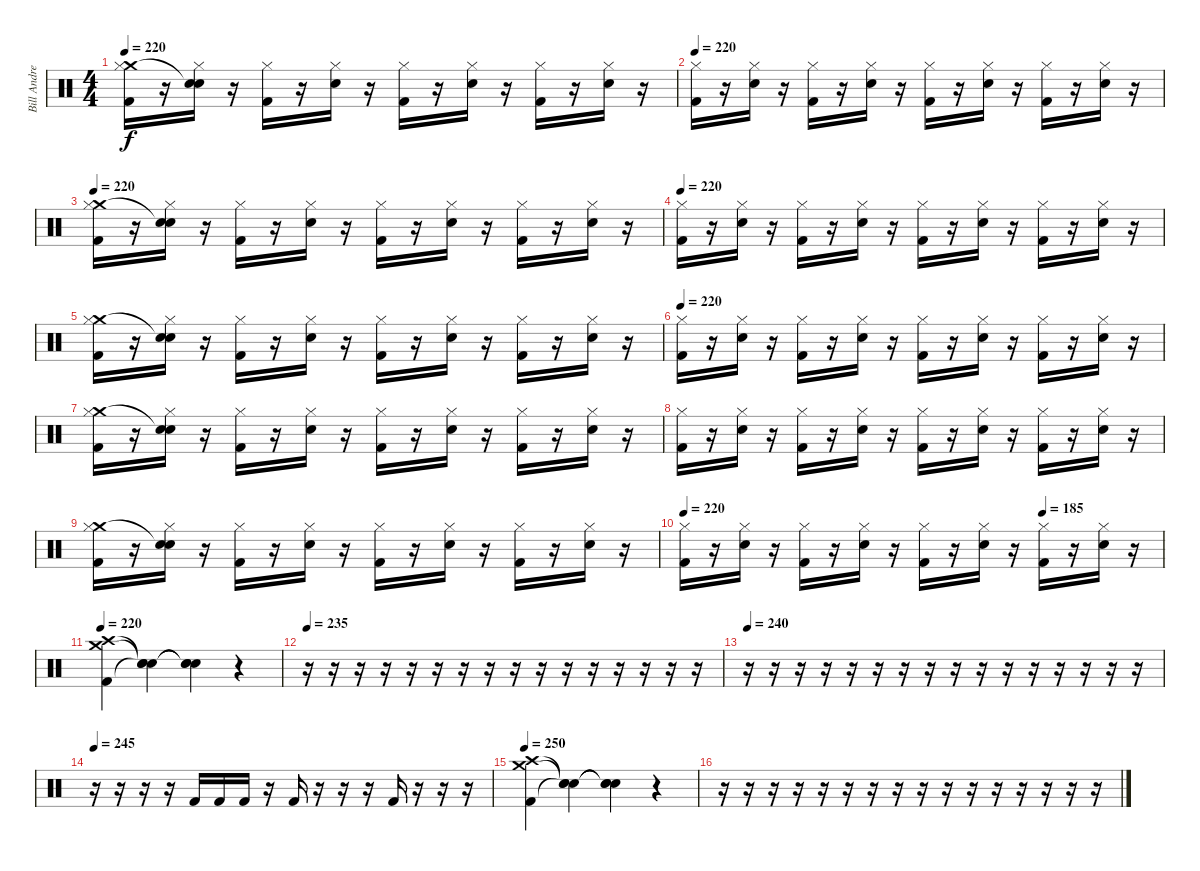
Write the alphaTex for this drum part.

\track ("Bill Andrews" "Bill Andre") {instrument percussion}
\staff {score}
\articulation defaults
\ts (4 4)
\tempo 220
\clef neutral
\ks c
("Crash medium (hit)" "Hi-Hat (closed)" "Kick (hit) 2").16{dy f} r.16 ("Snare (hit)"{t} "Hi-Hat (closed)" "Snare (hit) 2").16 r.16 ("Hi-Hat (closed)" "Kick (hit) 2").16 r.16 ("Hi-Hat (closed)" "Snare (hit) 2").16 r.16 ("Hi-Hat (closed)" "Kick (hit) 2").16 r.16 ("Hi-Hat (closed)" "Snare (hit) 2").16 r.16 ("Hi-Hat (closed)" "Kick (hit) 2").16 r.16 ("Hi-Hat (closed)" "Snare (hit) 2").16 r.16 |
\tempo 220
("Hi-Hat (closed)" "Kick (hit) 2").16 r.16 ("Hi-Hat (closed)" "Snare (hit) 2").16 r.16 ("Hi-Hat (closed)" "Kick (hit) 2").16 r.16 ("Hi-Hat (closed)" "Snare (hit) 2").16 r.16 ("Hi-Hat (closed)" "Kick (hit) 2").16 r.16 ("Hi-Hat (closed)" "Snare (hit) 2").16 r.16 ("Hi-Hat (closed)" "Kick (hit) 2").16 r.16 ("Hi-Hat (closed)" "Snare (hit) 2").16 r.16 |
\tempo 220
("Crash medium (hit)" "Hi-Hat (closed)" "Kick (hit) 2").16 r.16 ("Snare (hit)"{t} "Hi-Hat (closed)" "Snare (hit) 2").16 r.16 ("Hi-Hat (closed)" "Kick (hit) 2").16 r.16 ("Hi-Hat (closed)" "Snare (hit) 2").16 r.16 ("Hi-Hat (closed)" "Kick (hit) 2").16 r.16 ("Hi-Hat (closed)" "Snare (hit) 2").16 r.16 ("Hi-Hat (closed)" "Kick (hit) 2").16 r.16 ("Hi-Hat (closed)" "Snare (hit) 2").16 r.16 |
\tempo 220
("Hi-Hat (closed)" "Kick (hit) 2").16 r.16 ("Hi-Hat (closed)" "Snare (hit) 2").16 r.16 ("Hi-Hat (closed)" "Kick (hit) 2").16 r.16 ("Hi-Hat (closed)" "Snare (hit) 2").16 r.16 ("Hi-Hat (closed)" "Kick (hit) 2").16 r.16 ("Hi-Hat (closed)" "Snare (hit) 2").16 r.16 ("Hi-Hat (closed)" "Kick (hit) 2").16 r.16 ("Hi-Hat (closed)" "Snare (hit) 2").16 r.16 |
("Crash medium (hit)" "Hi-Hat (closed)" "Kick (hit) 2").16 r.16 ("Snare (hit)"{t} "Hi-Hat (closed)" "Snare (hit) 2").16 r.16 ("Hi-Hat (closed)" "Kick (hit) 2").16 r.16 ("Hi-Hat (closed)" "Snare (hit) 2").16 r.16 ("Hi-Hat (closed)" "Kick (hit) 2").16 r.16 ("Hi-Hat (closed)" "Snare (hit) 2").16 r.16 ("Hi-Hat (closed)" "Kick (hit) 2").16 r.16 ("Hi-Hat (closed)" "Snare (hit) 2").16 r.16 |
\tempo 220
("Hi-Hat (closed)" "Kick (hit) 2").16 r.16 ("Hi-Hat (closed)" "Snare (hit) 2").16 r.16 ("Hi-Hat (closed)" "Kick (hit) 2").16 r.16 ("Hi-Hat (closed)" "Snare (hit) 2").16 r.16 ("Hi-Hat (closed)" "Kick (hit) 2").16 r.16 ("Hi-Hat (closed)" "Snare (hit) 2").16 r.16 ("Hi-Hat (closed)" "Kick (hit) 2").16 r.16 ("Hi-Hat (closed)" "Snare (hit) 2").16 r.16 |
("Crash medium (hit)" "Hi-Hat (closed)" "Kick (hit) 2").16 r.16 ("Snare (hit)"{t} "Hi-Hat (closed)" "Snare (hit) 2").16 r.16 ("Hi-Hat (closed)" "Kick (hit) 2").16 r.16 ("Hi-Hat (closed)" "Snare (hit) 2").16 r.16 ("Hi-Hat (closed)" "Kick (hit) 2").16 r.16 ("Hi-Hat (closed)" "Snare (hit) 2").16 r.16 ("Hi-Hat (closed)" "Kick (hit) 2").16 r.16 ("Hi-Hat (closed)" "Snare (hit) 2").16 r.16 |
("Hi-Hat (closed)" "Kick (hit) 2").16 r.16 ("Hi-Hat (closed)" "Snare (hit) 2").16 r.16 ("Hi-Hat (closed)" "Kick (hit) 2").16 r.16 ("Hi-Hat (closed)" "Snare (hit) 2").16 r.16 ("Hi-Hat (closed)" "Kick (hit) 2").16 r.16 ("Hi-Hat (closed)" "Snare (hit) 2").16 r.16 ("Hi-Hat (closed)" "Kick (hit) 2").16 r.16 ("Hi-Hat (closed)" "Snare (hit) 2").16 r.16 |
("Crash medium (hit)" "Hi-Hat (closed)" "Kick (hit) 2").16 r.16 ("Snare (hit)"{t} "Hi-Hat (closed)" "Snare (hit) 2").16 r.16 ("Hi-Hat (closed)" "Kick (hit) 2").16 r.16 ("Hi-Hat (closed)" "Snare (hit) 2").16 r.16 ("Hi-Hat (closed)" "Kick (hit) 2").16 r.16 ("Hi-Hat (closed)" "Snare (hit) 2").16 r.16 ("Hi-Hat (closed)" "Kick (hit) 2").16 r.16 ("Hi-Hat (closed)" "Snare (hit) 2").16 r.16 |
\tempo 220
\tempo (185 0.75)
("Hi-Hat (closed)" "Kick (hit) 2").16 r.16 ("Hi-Hat (closed)" "Snare (hit) 2").16 r.16 ("Hi-Hat (closed)" "Kick (hit) 2").16 r.16 ("Hi-Hat (closed)" "Snare (hit) 2").16 r.16 ("Hi-Hat (closed)" "Kick (hit) 2").16 r.16 ("Hi-Hat (closed)" "Snare (hit) 2").16 r.16 ("Hi-Hat (closed)" "Kick (hit) 2").16 r.16 ("Hi-Hat (closed)" "Snare (hit) 2").16 r.16 |
\tempo 220
("Crash high (hit)" "Crash medium (hit)" "Kick (hit) 2").4 ("Snare (hit)"{t} "Snare (hit)"{t} "Snare (hit)"{t}).4 ("Snare (hit)"{t} "Snare (hit)"{t} "Snare (hit)"{t}).4 r.4 |
\tempo 235
r.16 r.16 r.16 r.16 r.16 r.16 r.16 r.16 r.16 r.16 r.16 r.16 r.16 r.16 r.16 r.16 |
\tempo 240
r.16 r.16 r.16 r.16 r.16 r.16 r.16 r.16 r.16 r.16 r.16 r.16 r.16 r.16 r.16 r.16 |
\tempo 245
r.16 r.16 r.16 r.16 "Kick (hit) 2".16 "Kick (hit) 2".16 "Kick (hit) 2".16 r.16 "Kick (hit) 2".16 r.16 r.16 r.16 "Kick (hit) 2".16 r.16 r.16 r.16 |
\tempo 250
("Crash high (hit)" "Crash medium (hit)" "Kick (hit) 2").4 ("Snare (hit)"{t} "Snare (hit)"{t} "Snare (hit)"{t}).4 ("Snare (hit)"{t} "Snare (hit)"{t} "Snare (hit)"{t}).4 r.4 |
r.16 r.16 r.16 r.16 r.16 r.16 r.16 r.16 r.16 r.16 r.16 r.16 r.16 r.16 r.16 r.16
